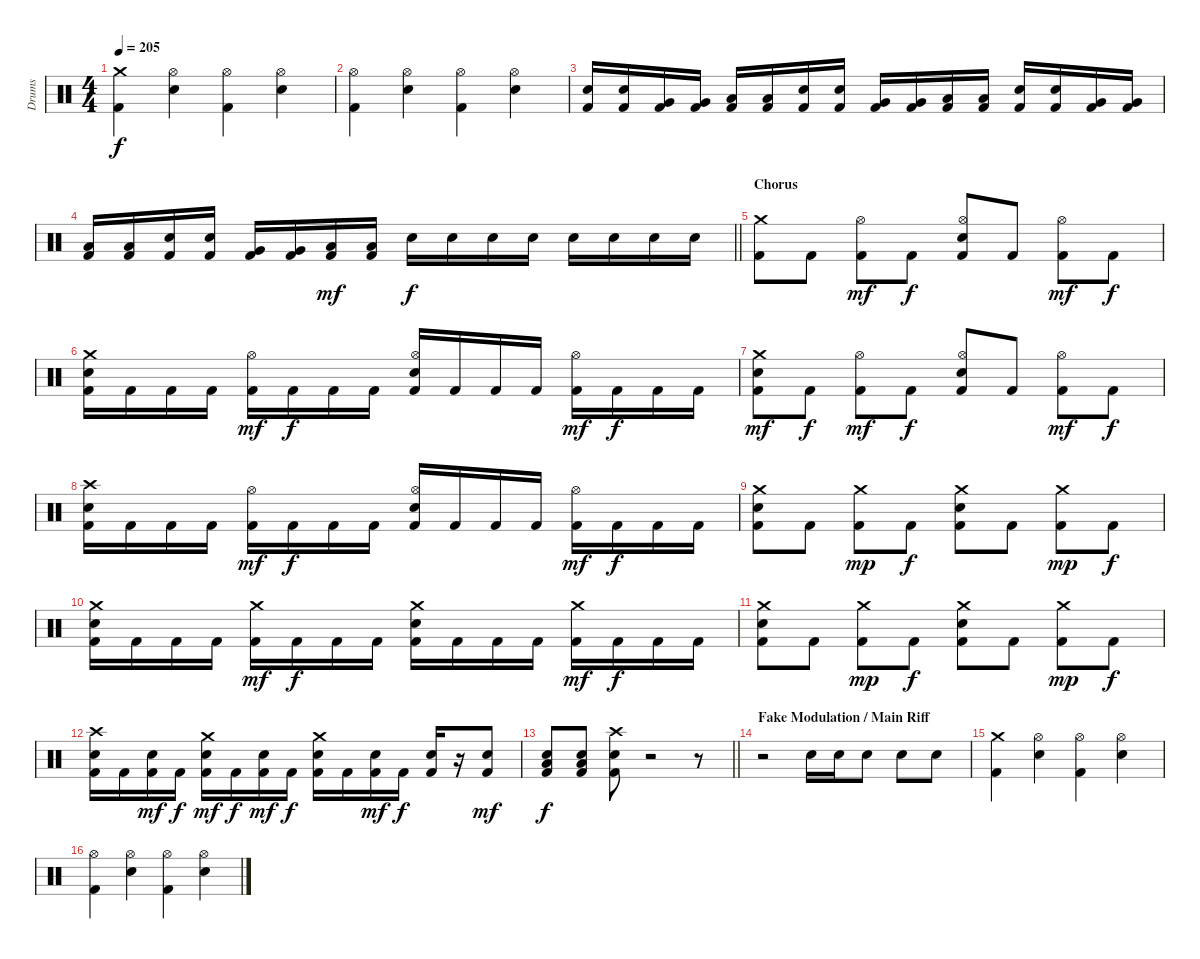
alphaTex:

\track ("Drums" "Drums") {instrument percussion}
\staff {score}
\articulation defaults
\ts (4 4)
\tempo 205
\clef neutral
\ks c
("Crash medium (hit)" "Kick (hit) 2").4{dy f} ("Hi-Hat (open)" "Electric Snare (hit)").4 ("Hi-Hat (open)" "Kick (hit) 2").4 ("Hi-Hat (open)" "Electric Snare (hit)").4 |
("Hi-Hat (open)" "Kick (hit) 2").4 ("Hi-Hat (open)" "Electric Snare (hit)").4 ("Hi-Hat (open)" "Kick (hit) 2").4 ("Hi-Hat (open)" "Electric Snare (hit)").4 |
("Electric Snare (hit)" "Kick (hit) 2").16 ("Electric Snare (hit)" "Kick (hit) 2").16 ("Very Low Tom (hit)" "Kick (hit) 2").16 ("Very Low Tom (hit)" "Kick (hit) 2").16 ("Low Floor Tom (hit)" "Kick (hit) 2").16 ("Low Floor Tom (hit)" "Kick (hit) 2").16 ("Electric Snare (hit)" "Kick (hit) 2").16 ("Electric Snare (hit)" "Kick (hit) 2").16 ("Very Low Tom (hit)" "Kick (hit) 2").16 ("Very Low Tom (hit)" "Kick (hit) 2").16 ("Low Floor Tom (hit)" "Kick (hit) 2").16 ("Low Floor Tom (hit)" "Kick (hit) 2").16 ("Electric Snare (hit)" "Kick (hit) 2").16 ("Electric Snare (hit)" "Kick (hit) 2").16 ("Very Low Tom (hit)" "Kick (hit) 2").16 ("Very Low Tom (hit)" "Kick (hit) 2").16 |
\barLineRight lightlight
("Low Floor Tom (hit)" "Kick (hit) 2").16 ("Low Floor Tom (hit)" "Kick (hit) 2").16 ("Electric Snare (hit)" "Kick (hit) 2").16 ("Electric Snare (hit)" "Kick (hit) 2").16 ("Very Low Tom (hit)" "Kick (hit) 2").16 ("Very Low Tom (hit)" "Kick (hit) 2").16 ("Low Floor Tom (hit)" "Kick (hit) 2").16{dy mf} ("Low Floor Tom (hit)" "Kick (hit) 2").16 "Electric Snare (hit)".16{dy f} "Electric Snare (hit)".16 "Electric Snare (hit)".16 "Electric Snare (hit)".16 "Electric Snare (hit)".16 "Electric Snare (hit)".16 "Electric Snare (hit)".16 "Electric Snare (hit)".16 |
\section ("" "Chorus")
("Crash medium (hit)" "Kick (hit) 2").8 "Kick (hit) 2".8 ("Hi-Hat (open)" "Kick (hit) 2").8{dy mf} "Kick (hit) 2".8{dy f} ("Hi-Hat (open)" "Electric Snare (hit)" "Kick (hit) 2").8 "Kick (hit) 2".8 ("Hi-Hat (open)" "Kick (hit) 2").8{dy mf} "Kick (hit) 2".8{dy f} |
("Crash medium (hit)" "Electric Snare (hit)" "Kick (hit) 2").16 "Kick (hit) 2".16 "Kick (hit) 2".16 "Kick (hit) 2".16 ("Hi-Hat (open)" "Kick (hit) 2").16{dy mf} "Kick (hit) 2".16{dy f} "Kick (hit) 2".16 "Kick (hit) 2".16 ("Hi-Hat (open)" "Electric Snare (hit)" "Kick (hit) 2").16 "Kick (hit) 2".16 "Kick (hit) 2".16 "Kick (hit) 2".16 ("Hi-Hat (open)" "Kick (hit) 2").16{dy mf} "Kick (hit) 2".16{dy f} "Kick (hit) 2".16 "Kick (hit) 2".16 |
("Crash medium (hit)" "Electric Snare (hit)" "Kick (hit) 2").8{dy mf} "Kick (hit) 2".8{dy f} ("Hi-Hat (open)" "Kick (hit) 2").8{dy mf} "Kick (hit) 2".8{dy f} ("Hi-Hat (open)" "Electric Snare (hit)" "Kick (hit) 2").8 "Kick (hit) 2".8 ("Hi-Hat (open)" "Kick (hit) 2").8{dy mf} "Kick (hit) 2".8{dy f} |
("Crash high (hit)" "Electric Snare (hit)" "Kick (hit) 2").16 "Kick (hit) 2".16 "Kick (hit) 2".16 "Kick (hit) 2".16 ("Hi-Hat (open)" "Kick (hit) 2").16{dy mf} "Kick (hit) 2".16{dy f} "Kick (hit) 2".16 "Kick (hit) 2".16 ("Hi-Hat (open)" "Electric Snare (hit)" "Kick (hit) 2").16 "Kick (hit) 2".16 "Kick (hit) 2".16 "Kick (hit) 2".16 ("Hi-Hat (open)" "Kick (hit) 2").16{dy mf} "Kick (hit) 2".16{dy f} "Kick (hit) 2".16 "Kick (hit) 2".16 |
("Crash medium (hit)" "Electric Snare (hit)" "Kick (hit) 2").8 "Kick (hit) 2".8 ("Crash medium (hit)" "Kick (hit) 2").8{dy mp} "Kick (hit) 2".8{dy f} ("Crash medium (hit)" "Electric Snare (hit)" "Kick (hit) 2").8 "Kick (hit) 2".8 ("Crash medium (hit)" "Kick (hit) 2").8{dy mp} "Kick (hit) 2".8{dy f} |
("Crash medium (hit)" "Electric Snare (hit)" "Kick (hit) 2").16 "Kick (hit) 2".16 "Kick (hit) 2".16 "Kick (hit) 2".16 ("Crash medium (hit)" "Kick (hit) 2").16{dy mf} "Kick (hit) 2".16{dy f} "Kick (hit) 2".16 "Kick (hit) 2".16 ("Crash medium (hit)" "Electric Snare (hit)" "Kick (hit) 2").16 "Kick (hit) 2".16 "Kick (hit) 2".16 "Kick (hit) 2".16 ("Crash medium (hit)" "Kick (hit) 2").16{dy mf} "Kick (hit) 2".16{dy f} "Kick (hit) 2".16 "Kick (hit) 2".16 |
("Crash medium (hit)" "Electric Snare (hit)" "Kick (hit) 2").8 "Kick (hit) 2".8 ("Crash medium (hit)" "Kick (hit) 2").8{dy mp} "Kick (hit) 2".8{dy f} ("Crash medium (hit)" "Electric Snare (hit)" "Kick (hit) 2").8 "Kick (hit) 2".8 ("Crash medium (hit)" "Kick (hit) 2").8{dy mp} "Kick (hit) 2".8{dy f} |
("Crash high (hit)" "Electric Snare (hit)" "Kick (hit) 2").16 "Kick (hit) 2".16 ("Electric Snare (hit)" "Kick (hit) 2").16{dy mf} "Kick (hit) 2".16{dy f} ("Crash medium (hit)" "Electric Snare (hit)" "Kick (hit) 2").16{dy mf} "Kick (hit) 2".16{dy f} ("Electric Snare (hit)" "Kick (hit) 2").16{dy mf} "Kick (hit) 2".16{dy f} ("Crash medium (hit)" "Electric Snare (hit)" "Kick (hit) 2").16 "Kick (hit) 2".16 ("Electric Snare (hit)" "Kick (hit) 2").16{dy mf} "Kick (hit) 2".16{dy f} ("Electric Snare (hit)" "Kick (hit) 2").16 r.16 ("Electric Snare (hit)" "Kick (hit) 2").8{dy mf} |
\barLineRight lightlight
("Electric Snare (hit)" "Low Floor Tom (hit)" "Kick (hit) 2").8{dy f} ("Electric Snare (hit)" "Low Floor Tom (hit)" "Kick (hit) 2").8 ("Crash high (hit)" "Electric Snare (hit)" "Kick (hit) 2").8 r.2 r.8 |
\section ("" "Fake Modulation / Main Riff")
r.2 "Electric Snare (hit)".16 "Electric Snare (hit)".16 "Electric Snare (hit)".8 "Electric Snare (hit)".8 "Electric Snare (hit)".8 |
("Crash medium (hit)" "Kick (hit) 2").4 ("Hi-Hat (open)" "Electric Snare (hit)").4 ("Hi-Hat (open)" "Kick (hit) 2").4 ("Hi-Hat (open)" "Electric Snare (hit)").4 |
("Hi-Hat (open)" "Kick (hit) 2").4 ("Hi-Hat (open)" "Electric Snare (hit)").4 ("Hi-Hat (open)" "Kick (hit) 2").4 ("Hi-Hat (open)" "Electric Snare (hit)").4
